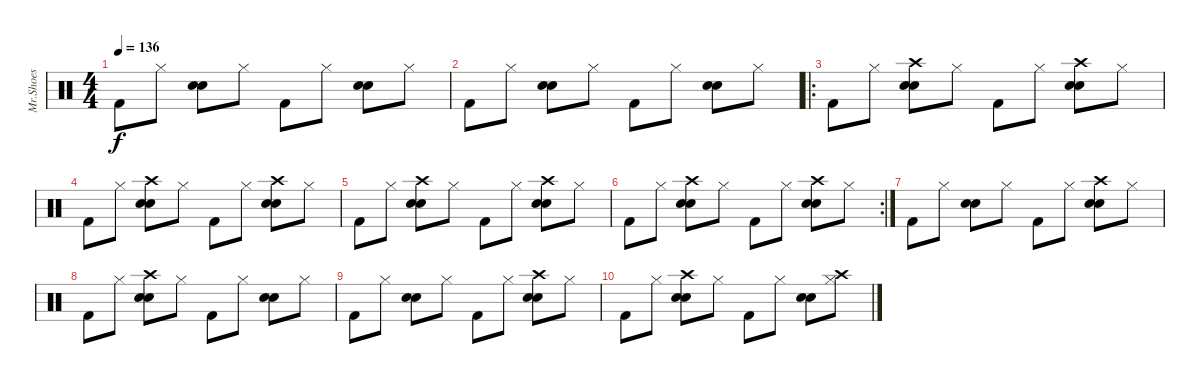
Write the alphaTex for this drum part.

\track ("Mr.Shoes" "Mr.Shoes") {instrument percussion}
\staff {score}
\articulation defaults
\ts (4 4)
\tempo 136
\clef neutral
\ks c "Kick (hit) 2".8{dy f} "Hi-Hat (closed)".8
("Electric Snare (hit)" "Snare (hit) 2").8 "Hi-Hat (closed)".8 "Kick (hit) 2".8 "Hi-Hat (closed)".8 ("Electric Snare (hit)" "Snare (hit) 2").8 "Hi-Hat (closed)".8 |
"Kick (hit) 2".8 "Hi-Hat (closed)".8 ("Electric Snare (hit)" "Snare (hit) 2").8 "Hi-Hat (closed)".8 "Kick (hit) 2".8 "Hi-Hat (closed)".8 ("Electric Snare (hit)" "Snare (hit) 2").8 "Hi-Hat (closed)".8 |
\ro "Kick (hit) 2".8 "Hi-Hat (closed)".8
("Electric Snare (hit)" "Snare (hit) 2" "Crash high (hit)").8 "Hi-Hat (closed)".8 "Kick (hit) 2".8 "Hi-Hat (closed)".8 ("Electric Snare (hit)" "Snare (hit) 2" "Crash high (hit)").8 "Hi-Hat (closed)".8 |
"Kick (hit) 2".8 "Hi-Hat (closed)".8 ("Electric Snare (hit)" "Snare (hit) 2" "Crash high (hit)").8 "Hi-Hat (closed)".8 "Kick (hit) 2".8 "Hi-Hat (closed)".8 ("Electric Snare (hit)" "Snare (hit) 2" "Crash high (hit)").8 "Hi-Hat (closed)".8 |
"Kick (hit) 2".8 "Hi-Hat (closed)".8 ("Electric Snare (hit)" "Snare (hit) 2" "Crash high (hit)").8 "Hi-Hat (closed)".8 "Kick (hit) 2".8 "Hi-Hat (closed)".8 ("Electric Snare (hit)" "Snare (hit) 2" "Crash high (hit)").8 "Hi-Hat (closed)".8 |
\rc 2 "Kick (hit) 2".8 "Hi-Hat (closed)".8
("Electric Snare (hit)" "Snare (hit) 2" "Crash high (hit)").8 "Hi-Hat (closed)".8 "Kick (hit) 2".8 "Hi-Hat (closed)".8 ("Electric Snare (hit)" "Snare (hit) 2" "Crash high (hit)").8 "Hi-Hat (closed)".8 |
"Kick (hit) 2".8 "Hi-Hat (closed)".8 ("Electric Snare (hit)" "Snare (hit) 2").8 "Hi-Hat (closed)".8 "Kick (hit) 2".8 "Hi-Hat (closed)".8 ("Electric Snare (hit)" "Snare (hit) 2" "Crash high (hit)").8 "Hi-Hat (closed)".8 |
"Kick (hit) 2".8 "Hi-Hat (closed)".8 ("Electric Snare (hit)" "Snare (hit) 2" "Crash high (hit)").8 "Hi-Hat (closed)".8 "Kick (hit) 2".8 "Hi-Hat (closed)".8 ("Electric Snare (hit)" "Snare (hit) 2").8 "Hi-Hat (closed)".8 |
"Kick (hit) 2".8 "Hi-Hat (closed)".8 ("Electric Snare (hit)" "Snare (hit) 2").8 "Hi-Hat (closed)".8 "Kick (hit) 2".8 "Hi-Hat (closed)".8 ("Electric Snare (hit)" "Snare (hit) 2" "Crash high (hit)").8 "Hi-Hat (closed)".8 |
"Kick (hit) 2".8 "Hi-Hat (closed)".8 ("Electric Snare (hit)" "Snare (hit) 2" "Crash high (hit)").8 "Hi-Hat (closed)".8 "Kick (hit) 2".8 "Hi-Hat (closed)".8 ("Electric Snare (hit)" "Snare (hit) 2").8 ("Hi-Hat (closed)" "Crash high (hit)").8
